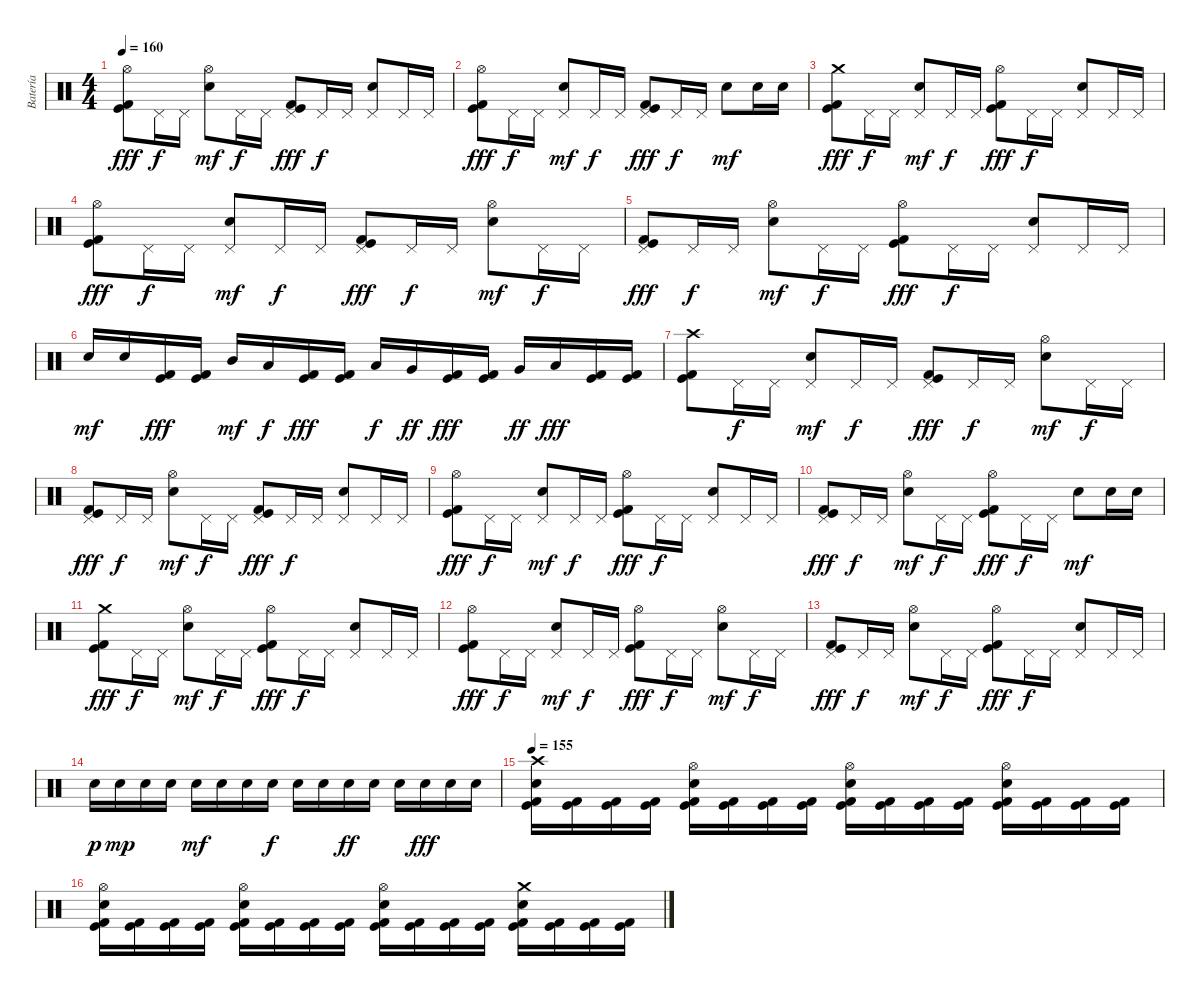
\track ("Batería" "Batería") {instrument percussion}
\staff {score}
\articulation defaults
\ts (4 4)
\tempo 160
\clef neutral
\ks c
("Hi-Hat (open)" "Kick (hit) 2" "Kick (hit)").8{dy fff} "Pedal Hi-Hat (hit)".16{dy f} "Pedal Hi-Hat (hit)".16 ("Hi-Hat (open)" "Electric Snare (hit)").8{dy mf} "Pedal Hi-Hat (hit)".16{dy f} "Pedal Hi-Hat (hit)".16 ("Pedal Hi-Hat (hit)" "Kick (hit) 2" "Kick (hit)").8{dy fff} "Pedal Hi-Hat (hit)".16{dy f} "Pedal Hi-Hat (hit)".16 ("Pedal Hi-Hat (hit)" "Electric Snare (hit)").8 "Pedal Hi-Hat (hit)".16 "Pedal Hi-Hat (hit)".16 |
("Hi-Hat (open)" "Kick (hit) 2" "Kick (hit)").8{dy fff} "Pedal Hi-Hat (hit)".16{dy f} "Pedal Hi-Hat (hit)".16 ("Pedal Hi-Hat (hit)" "Electric Snare (hit)").8{dy mf} "Pedal Hi-Hat (hit)".16{dy f} "Pedal Hi-Hat (hit)".16 ("Pedal Hi-Hat (hit)" "Kick (hit) 2" "Kick (hit)").8{dy fff} "Pedal Hi-Hat (hit)".16{dy f} "Pedal Hi-Hat (hit)".16 "Electric Snare (hit)".8{dy mf} "Electric Snare (hit)".16 "Electric Snare (hit)".16 |
("Crash medium (hit)" "Kick (hit) 2" "Kick (hit)").8{dy fff} "Pedal Hi-Hat (hit)".16{dy f} "Pedal Hi-Hat (hit)".16 ("Pedal Hi-Hat (hit)" "Electric Snare (hit)").8{dy mf} "Pedal Hi-Hat (hit)".16{dy f} "Pedal Hi-Hat (hit)".16 ("Hi-Hat (open)" "Kick (hit) 2" "Kick (hit)").8{dy fff} "Pedal Hi-Hat (hit)".16{dy f} "Pedal Hi-Hat (hit)".16 ("Pedal Hi-Hat (hit)" "Electric Snare (hit)").8 "Pedal Hi-Hat (hit)".16 "Pedal Hi-Hat (hit)".16 |
("Hi-Hat (open)" "Kick (hit) 2" "Kick (hit)").8{dy fff} "Pedal Hi-Hat (hit)".16{dy f} "Pedal Hi-Hat (hit)".16 ("Pedal Hi-Hat (hit)" "Electric Snare (hit)").8{dy mf} "Pedal Hi-Hat (hit)".16{dy f} "Pedal Hi-Hat (hit)".16 ("Pedal Hi-Hat (hit)" "Kick (hit) 2" "Kick (hit)").8{dy fff} "Pedal Hi-Hat (hit)".16{dy f} "Pedal Hi-Hat (hit)".16 ("Hi-Hat (open)" "Electric Snare (hit)").8{dy mf} "Pedal Hi-Hat (hit)".16{dy f} "Pedal Hi-Hat (hit)".16 |
("Pedal Hi-Hat (hit)" "Kick (hit) 2" "Kick (hit)").8{dy fff} "Pedal Hi-Hat (hit)".16{dy f} "Pedal Hi-Hat (hit)".16 ("Hi-Hat (open)" "Electric Snare (hit)").8{dy mf} "Pedal Hi-Hat (hit)".16{dy f} "Pedal Hi-Hat (hit)".16 ("Hi-Hat (open)" "Kick (hit) 2" "Kick (hit)").8{dy fff} "Pedal Hi-Hat (hit)".16{dy f} "Pedal Hi-Hat (hit)".16 ("Pedal Hi-Hat (hit)" "Electric Snare (hit)").8 "Pedal Hi-Hat (hit)".16 "Pedal Hi-Hat (hit)".16 |
"Electric Snare (hit)".16{dy mf} "Electric Snare (hit)".16 ("Kick (hit) 2" "Kick (hit)").16{dy fff} ("Kick (hit) 2" "Kick (hit)").16 "Mid Tom (hit)".16{dy mf} "Low Tom (hit)".16{dy f} ("Kick (hit) 2" "Kick (hit)").16{dy fff} ("Kick (hit) 2" "Kick (hit)").16 "Low Tom (hit)".16{dy f} "Very Low Tom (hit)".16{dy ff} ("Kick (hit) 2" "Kick (hit)").16{dy fff} ("Kick (hit) 2" "Kick (hit)").16 "Very Low Tom (hit)".16{dy ff} "Low Floor Tom (hit)".16{dy fff} ("Kick (hit) 2" "Kick (hit)").16 ("Kick (hit) 2" "Kick (hit)").16 |
("Crash high (hit)" "Kick (hit) 2" "Kick (hit)").8 "Pedal Hi-Hat (hit)".16{dy f} "Pedal Hi-Hat (hit)".16 ("Pedal Hi-Hat (hit)" "Electric Snare (hit)").8{dy mf} "Pedal Hi-Hat (hit)".16{dy f} "Pedal Hi-Hat (hit)".16 ("Pedal Hi-Hat (hit)" "Kick (hit) 2" "Kick (hit)").8{dy fff} "Pedal Hi-Hat (hit)".16{dy f} "Pedal Hi-Hat (hit)".16 ("Hi-Hat (open)" "Electric Snare (hit)").8{dy mf} "Pedal Hi-Hat (hit)".16{dy f} "Pedal Hi-Hat (hit)".16 |
("Pedal Hi-Hat (hit)" "Kick (hit) 2" "Kick (hit)").8{dy fff} "Pedal Hi-Hat (hit)".16{dy f} "Pedal Hi-Hat (hit)".16 ("Hi-Hat (open)" "Electric Snare (hit)").8{dy mf} "Pedal Hi-Hat (hit)".16{dy f} "Pedal Hi-Hat (hit)".16 ("Pedal Hi-Hat (hit)" "Kick (hit) 2" "Kick (hit)").8{dy fff} "Pedal Hi-Hat (hit)".16{dy f} "Pedal Hi-Hat (hit)".16 ("Pedal Hi-Hat (hit)" "Electric Snare (hit)").8 "Pedal Hi-Hat (hit)".16 "Pedal Hi-Hat (hit)".16 |
("Hi-Hat (open)" "Kick (hit) 2" "Kick (hit)").8{dy fff} "Pedal Hi-Hat (hit)".16{dy f} "Pedal Hi-Hat (hit)".16 ("Pedal Hi-Hat (hit)" "Electric Snare (hit)").8{dy mf} "Pedal Hi-Hat (hit)".16{dy f} "Pedal Hi-Hat (hit)".16 ("Hi-Hat (open)" "Kick (hit) 2" "Kick (hit)").8{dy fff} "Pedal Hi-Hat (hit)".16{dy f} "Pedal Hi-Hat (hit)".16 ("Pedal Hi-Hat (hit)" "Electric Snare (hit)").8 "Pedal Hi-Hat (hit)".16 "Pedal Hi-Hat (hit)".16 |
("Pedal Hi-Hat (hit)" "Kick (hit) 2" "Kick (hit)").8{dy fff} "Pedal Hi-Hat (hit)".16{dy f} "Pedal Hi-Hat (hit)".16 ("Hi-Hat (open)" "Electric Snare (hit)").8{dy mf} "Pedal Hi-Hat (hit)".16{dy f} "Pedal Hi-Hat (hit)".16 ("Hi-Hat (open)" "Kick (hit) 2" "Kick (hit)").8{dy fff} "Pedal Hi-Hat (hit)".16{dy f} "Pedal Hi-Hat (hit)".16 "Electric Snare (hit)".8{dy mf} "Electric Snare (hit)".16 "Electric Snare (hit)".16 |
("Crash medium (hit)" "Kick (hit) 2" "Kick (hit)").8{dy fff} "Pedal Hi-Hat (hit)".16{dy f} "Pedal Hi-Hat (hit)".16 ("Hi-Hat (open)" "Electric Snare (hit)").8{dy mf} "Pedal Hi-Hat (hit)".16{dy f} "Pedal Hi-Hat (hit)".16 ("Hi-Hat (open)" "Kick (hit) 2" "Kick (hit)").8{dy fff} "Pedal Hi-Hat (hit)".16{dy f} "Pedal Hi-Hat (hit)".16 ("Pedal Hi-Hat (hit)" "Electric Snare (hit)").8 "Pedal Hi-Hat (hit)".16 "Pedal Hi-Hat (hit)".16 |
("Hi-Hat (open)" "Kick (hit) 2" "Kick (hit)").8{dy fff} "Pedal Hi-Hat (hit)".16{dy f} "Pedal Hi-Hat (hit)".16 ("Pedal Hi-Hat (hit)" "Electric Snare (hit)").8{dy mf} "Pedal Hi-Hat (hit)".16{dy f} "Pedal Hi-Hat (hit)".16 ("Hi-Hat (open)" "Kick (hit) 2" "Kick (hit)").8{dy fff} "Pedal Hi-Hat (hit)".16{dy f} "Pedal Hi-Hat (hit)".16 ("Hi-Hat (open)" "Electric Snare (hit)").8{dy mf} "Pedal Hi-Hat (hit)".16{dy f} "Pedal Hi-Hat (hit)".16 |
("Pedal Hi-Hat (hit)" "Kick (hit) 2" "Kick (hit)").8{dy fff} "Pedal Hi-Hat (hit)".16{dy f} "Pedal Hi-Hat (hit)".16 ("Hi-Hat (open)" "Electric Snare (hit)").8{dy mf} "Pedal Hi-Hat (hit)".16{dy f} "Pedal Hi-Hat (hit)".16 ("Hi-Hat (open)" "Kick (hit) 2" "Kick (hit)").8{dy fff} "Pedal Hi-Hat (hit)".16{dy f} "Pedal Hi-Hat (hit)".16 ("Pedal Hi-Hat (hit)" "Electric Snare (hit)").8 "Pedal Hi-Hat (hit)".16 "Pedal Hi-Hat (hit)".16 |
"Electric Snare (hit)".16{dy p} "Electric Snare (hit)".16{dy mp} "Electric Snare (hit)".16 "Electric Snare (hit)".16 "Electric Snare (hit)".16{dy mf} "Electric Snare (hit)".16 "Electric Snare (hit)".16 "Electric Snare (hit)".16{dy f} "Electric Snare (hit)".16 "Electric Snare (hit)".16 "Electric Snare (hit)".16{dy ff} "Electric Snare (hit)".16 "Electric Snare (hit)".16 "Electric Snare (hit)".16{dy fff} "Electric Snare (hit)".16 "Electric Snare (hit)".16 |
\tempo 155
("Crash high (hit)" "Electric Snare (hit)" "Kick (hit) 2" "Kick (hit)").16 ("Kick (hit) 2" "Kick (hit)").16 ("Kick (hit) 2" "Kick (hit)").16 ("Kick (hit) 2" "Kick (hit)").16 ("Hi-Hat (open)" "Electric Snare (hit)" "Kick (hit) 2" "Kick (hit)").16 ("Kick (hit) 2" "Kick (hit)").16 ("Kick (hit) 2" "Kick (hit)").16 ("Kick (hit) 2" "Kick (hit)").16 ("Hi-Hat (open)" "Electric Snare (hit)" "Kick (hit) 2" "Kick (hit)").16 ("Kick (hit) 2" "Kick (hit)").16 ("Kick (hit) 2" "Kick (hit)").16 ("Kick (hit) 2" "Kick (hit)").16 ("Hi-Hat (open)" "Electric Snare (hit)" "Kick (hit) 2" "Kick (hit)").16 ("Kick (hit) 2" "Kick (hit)").16 ("Kick (hit) 2" "Kick (hit)").16 ("Kick (hit) 2" "Kick (hit)").16 |
("Hi-Hat (open)" "Electric Snare (hit)" "Kick (hit) 2" "Kick (hit)").16 ("Kick (hit) 2" "Kick (hit)").16 ("Kick (hit) 2" "Kick (hit)").16 ("Kick (hit) 2" "Kick (hit)").16 ("Hi-Hat (open)" "Electric Snare (hit)" "Kick (hit) 2" "Kick (hit)").16 ("Kick (hit) 2" "Kick (hit)").16 ("Kick (hit) 2" "Kick (hit)").16 ("Kick (hit) 2" "Kick (hit)").16 ("Hi-Hat (open)" "Electric Snare (hit)" "Kick (hit) 2" "Kick (hit)").16 ("Kick (hit) 2" "Kick (hit)").16 ("Kick (hit) 2" "Kick (hit)").16 ("Kick (hit) 2" "Kick (hit)").16 ("Crash medium (hit)" "Electric Snare (hit)" "Kick (hit) 2" "Kick (hit)").16 ("Kick (hit) 2" "Kick (hit)").16 ("Kick (hit) 2" "Kick (hit)").16 ("Kick (hit) 2" "Kick (hit)").16
